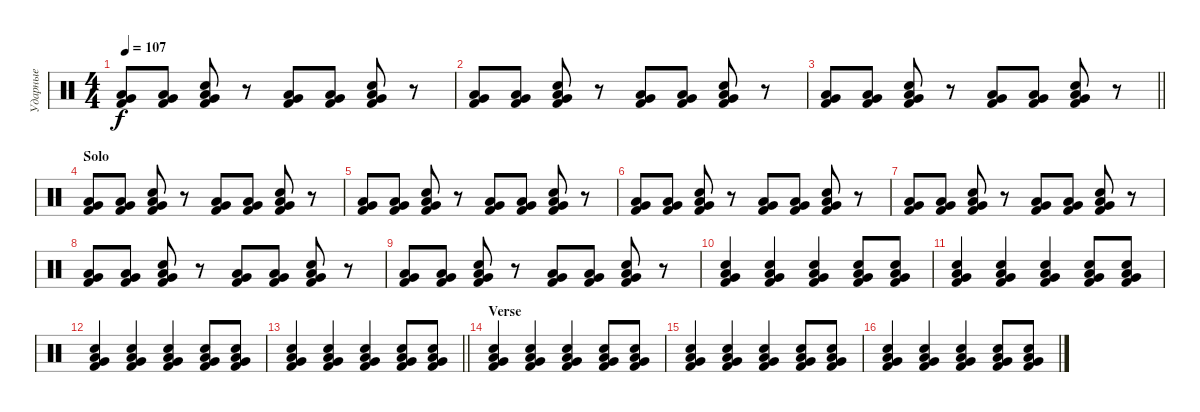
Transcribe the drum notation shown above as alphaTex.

\track ("Ударные" "Ударные") {instrument percussion}
\staff {score}
\articulation defaults
\ts (4 4)
\tempo 107
\clef neutral
\ks c
("Kick (hit) 2" "Low Tom (hit)" "Very Low Tom (hit)").8{dy f} ("Kick (hit) 2" "Low Tom (hit)" "Very Low Tom (hit)").8 ("Snare (hit) 2" "Low Tom (hit)" "Very Low Tom (hit)" "Kick (hit) 2").8 r.8 ("Kick (hit) 2" "Low Tom (hit)" "Very Low Tom (hit)").8 ("Kick (hit) 2" "Low Tom (hit)" "Very Low Tom (hit)").8 ("Snare (hit) 2" "Low Tom (hit)" "Very Low Tom (hit)" "Kick (hit) 2").8 r.8 |
("Kick (hit) 2" "Low Tom (hit)" "Very Low Tom (hit)").8 ("Kick (hit) 2" "Low Tom (hit)" "Very Low Tom (hit)").8 ("Snare (hit) 2" "Low Tom (hit)" "Very Low Tom (hit)" "Kick (hit) 2").8 r.8 ("Kick (hit) 2" "Low Tom (hit)" "Very Low Tom (hit)").8 ("Kick (hit) 2" "Low Tom (hit)" "Very Low Tom (hit)").8 ("Snare (hit) 2" "Low Tom (hit)" "Very Low Tom (hit)" "Kick (hit) 2").8 r.8 |
\barLineRight lightlight
("Kick (hit) 2" "Low Tom (hit)" "Very Low Tom (hit)").8 ("Kick (hit) 2" "Low Tom (hit)" "Very Low Tom (hit)").8 ("Snare (hit) 2" "Low Tom (hit)" "Very Low Tom (hit)" "Kick (hit) 2").8 r.8 ("Kick (hit) 2" "Low Tom (hit)" "Very Low Tom (hit)").8 ("Kick (hit) 2" "Low Tom (hit)" "Very Low Tom (hit)").8 ("Snare (hit) 2" "Low Tom (hit)" "Very Low Tom (hit)" "Kick (hit) 2").8 r.8 |
\section ("" "Solo")
("Kick (hit) 2" "Low Tom (hit)" "Very Low Tom (hit)").8 ("Kick (hit) 2" "Low Tom (hit)" "Very Low Tom (hit)").8 ("Snare (hit) 2" "Low Tom (hit)" "Very Low Tom (hit)" "Kick (hit) 2").8 r.8 ("Kick (hit) 2" "Low Tom (hit)" "Very Low Tom (hit)").8 ("Kick (hit) 2" "Low Tom (hit)" "Very Low Tom (hit)").8 ("Snare (hit) 2" "Low Tom (hit)" "Very Low Tom (hit)" "Kick (hit) 2").8 r.8 |
("Kick (hit) 2" "Low Tom (hit)" "Very Low Tom (hit)").8 ("Kick (hit) 2" "Low Tom (hit)" "Very Low Tom (hit)").8 ("Snare (hit) 2" "Low Tom (hit)" "Very Low Tom (hit)" "Kick (hit) 2").8 r.8 ("Kick (hit) 2" "Low Tom (hit)" "Very Low Tom (hit)").8 ("Kick (hit) 2" "Low Tom (hit)" "Very Low Tom (hit)").8 ("Snare (hit) 2" "Low Tom (hit)" "Very Low Tom (hit)" "Kick (hit) 2").8 r.8 |
("Kick (hit) 2" "Low Tom (hit)" "Very Low Tom (hit)").8 ("Kick (hit) 2" "Low Tom (hit)" "Very Low Tom (hit)").8 ("Snare (hit) 2" "Low Tom (hit)" "Very Low Tom (hit)" "Kick (hit) 2").8 r.8 ("Kick (hit) 2" "Low Tom (hit)" "Very Low Tom (hit)").8 ("Kick (hit) 2" "Low Tom (hit)" "Very Low Tom (hit)").8 ("Snare (hit) 2" "Low Tom (hit)" "Very Low Tom (hit)" "Kick (hit) 2").8 r.8 |
("Kick (hit) 2" "Low Tom (hit)" "Very Low Tom (hit)").8 ("Kick (hit) 2" "Low Tom (hit)" "Very Low Tom (hit)").8 ("Snare (hit) 2" "Low Tom (hit)" "Very Low Tom (hit)" "Kick (hit) 2").8 r.8 ("Kick (hit) 2" "Low Tom (hit)" "Very Low Tom (hit)").8 ("Kick (hit) 2" "Low Tom (hit)" "Very Low Tom (hit)").8 ("Snare (hit) 2" "Low Tom (hit)" "Very Low Tom (hit)" "Kick (hit) 2").8 r.8 |
("Kick (hit) 2" "Low Tom (hit)" "Very Low Tom (hit)").8 ("Kick (hit) 2" "Low Tom (hit)" "Very Low Tom (hit)").8 ("Snare (hit) 2" "Low Tom (hit)" "Very Low Tom (hit)" "Kick (hit) 2").8 r.8 ("Kick (hit) 2" "Low Tom (hit)" "Very Low Tom (hit)").8 ("Kick (hit) 2" "Low Tom (hit)" "Very Low Tom (hit)").8 ("Snare (hit) 2" "Low Tom (hit)" "Very Low Tom (hit)" "Kick (hit) 2").8 r.8 |
("Kick (hit) 2" "Low Tom (hit)" "Very Low Tom (hit)").8 ("Kick (hit) 2" "Low Tom (hit)" "Very Low Tom (hit)").8 ("Snare (hit) 2" "Low Tom (hit)" "Very Low Tom (hit)" "Kick (hit) 2").8 r.8 ("Kick (hit) 2" "Low Tom (hit)" "Very Low Tom (hit)").8 ("Kick (hit) 2" "Low Tom (hit)" "Very Low Tom (hit)").8 ("Snare (hit) 2" "Low Tom (hit)" "Very Low Tom (hit)" "Kick (hit) 2").8 r.8 |
("Snare (hit) 2" "Low Tom (hit)" "Very Low Tom (hit)" "Kick (hit) 2").4 ("Snare (hit) 2" "Low Tom (hit)" "Very Low Tom (hit)" "Kick (hit) 2").4 ("Snare (hit) 2" "Low Tom (hit)" "Very Low Tom (hit)" "Kick (hit) 2").4 ("Snare (hit) 2" "Low Tom (hit)" "Very Low Tom (hit)" "Kick (hit) 2").8 ("Snare (hit) 2" "Low Tom (hit)" "Very Low Tom (hit)" "Kick (hit) 2").8 |
("Snare (hit) 2" "Low Tom (hit)" "Very Low Tom (hit)" "Kick (hit) 2").4 ("Snare (hit) 2" "Low Tom (hit)" "Very Low Tom (hit)" "Kick (hit) 2").4 ("Snare (hit) 2" "Low Tom (hit)" "Very Low Tom (hit)" "Kick (hit) 2").4 ("Snare (hit) 2" "Low Tom (hit)" "Very Low Tom (hit)" "Kick (hit) 2").8 ("Snare (hit) 2" "Low Tom (hit)" "Very Low Tom (hit)" "Kick (hit) 2").8 |
("Snare (hit) 2" "Low Tom (hit)" "Very Low Tom (hit)" "Kick (hit) 2").4 ("Snare (hit) 2" "Low Tom (hit)" "Very Low Tom (hit)" "Kick (hit) 2").4 ("Snare (hit) 2" "Low Tom (hit)" "Very Low Tom (hit)" "Kick (hit) 2").4 ("Snare (hit) 2" "Low Tom (hit)" "Very Low Tom (hit)" "Kick (hit) 2").8 ("Snare (hit) 2" "Low Tom (hit)" "Very Low Tom (hit)" "Kick (hit) 2").8 |
\barLineRight lightlight
("Snare (hit) 2" "Low Tom (hit)" "Very Low Tom (hit)" "Kick (hit) 2").4 ("Snare (hit) 2" "Low Tom (hit)" "Very Low Tom (hit)" "Kick (hit) 2").4 ("Snare (hit) 2" "Low Tom (hit)" "Very Low Tom (hit)" "Kick (hit) 2").4 ("Snare (hit) 2" "Low Tom (hit)" "Very Low Tom (hit)" "Kick (hit) 2").8 ("Snare (hit) 2" "Low Tom (hit)" "Very Low Tom (hit)" "Kick (hit) 2").8 |
\section ("" "Verse")
("Snare (hit) 2" "Low Tom (hit)" "Very Low Tom (hit)" "Kick (hit) 2").4 ("Snare (hit) 2" "Low Tom (hit)" "Very Low Tom (hit)" "Kick (hit) 2").4 ("Snare (hit) 2" "Low Tom (hit)" "Very Low Tom (hit)" "Kick (hit) 2").4 ("Snare (hit) 2" "Low Tom (hit)" "Very Low Tom (hit)" "Kick (hit) 2").8 ("Snare (hit) 2" "Low Tom (hit)" "Very Low Tom (hit)" "Kick (hit) 2").8 |
("Snare (hit) 2" "Low Tom (hit)" "Very Low Tom (hit)" "Kick (hit) 2").4 ("Snare (hit) 2" "Low Tom (hit)" "Very Low Tom (hit)" "Kick (hit) 2").4 ("Snare (hit) 2" "Low Tom (hit)" "Very Low Tom (hit)" "Kick (hit) 2").4 ("Snare (hit) 2" "Low Tom (hit)" "Very Low Tom (hit)" "Kick (hit) 2").8 ("Snare (hit) 2" "Low Tom (hit)" "Very Low Tom (hit)" "Kick (hit) 2").8 |
("Snare (hit) 2" "Low Tom (hit)" "Very Low Tom (hit)" "Kick (hit) 2").4 ("Snare (hit) 2" "Low Tom (hit)" "Very Low Tom (hit)" "Kick (hit) 2").4 ("Snare (hit) 2" "Low Tom (hit)" "Very Low Tom (hit)" "Kick (hit) 2").4 ("Snare (hit) 2" "Low Tom (hit)" "Very Low Tom (hit)" "Kick (hit) 2").8 ("Snare (hit) 2" "Low Tom (hit)" "Very Low Tom (hit)" "Kick (hit) 2").8
